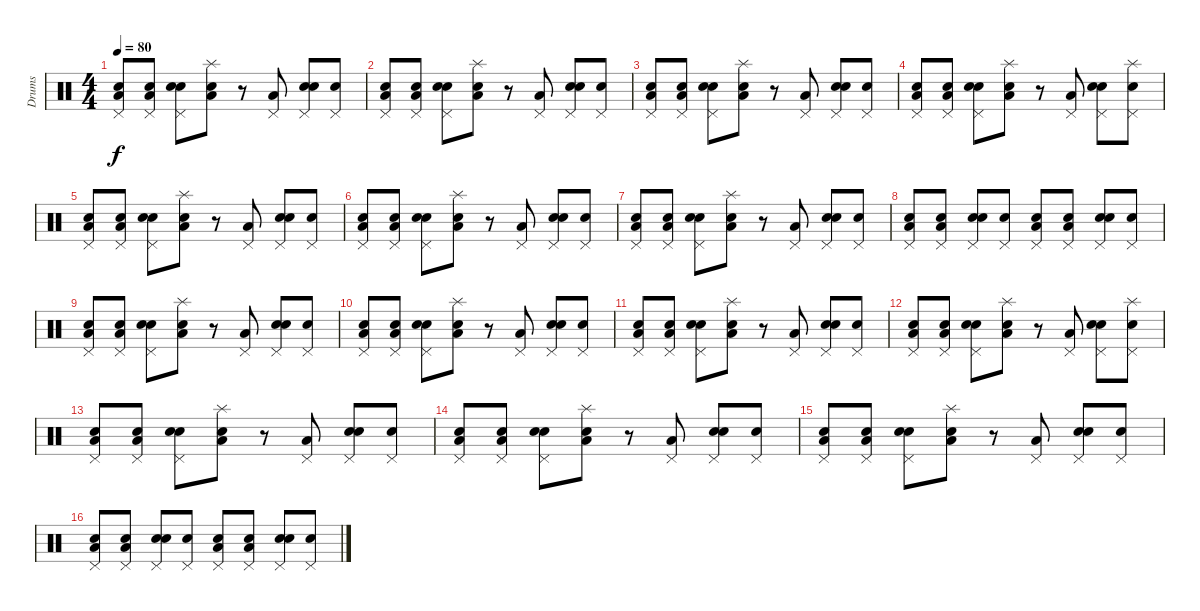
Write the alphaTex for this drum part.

\track ("Drums" "Drums") {instrument percussion}
\staff {score}
\articulation defaults
\ts (4 4)
\tempo 80
\clef neutral
\ks c
("Snare (hit)" "Low Floor Tom (hit)" "Pedal Hi-Hat (hit)").8{dy f} ("Snare (hit)" "Low Floor Tom (hit)" "Pedal Hi-Hat (hit)").8 ("Snare (hit)" "Electric Snare (hit)" "Pedal Hi-Hat (hit)").8 ("Snare (hit)" "Low Floor Tom (hit)" "Splash (hit)").8 r.8 ("Low Floor Tom (hit)" "Pedal Hi-Hat (hit)").8 ("Snare (hit)" "Electric Snare (hit)" "Pedal Hi-Hat (hit)").8 ("Snare (hit)" "Pedal Hi-Hat (hit)").8 |
("Snare (hit)" "Low Floor Tom (hit)" "Pedal Hi-Hat (hit)").8 ("Snare (hit)" "Low Floor Tom (hit)" "Pedal Hi-Hat (hit)").8 ("Snare (hit)" "Electric Snare (hit)" "Pedal Hi-Hat (hit)").8 ("Snare (hit)" "Low Floor Tom (hit)" "Splash (hit)").8 r.8 ("Low Floor Tom (hit)" "Pedal Hi-Hat (hit)").8 ("Snare (hit)" "Electric Snare (hit)" "Pedal Hi-Hat (hit)").8 ("Snare (hit)" "Pedal Hi-Hat (hit)").8 |
("Snare (hit)" "Low Floor Tom (hit)" "Pedal Hi-Hat (hit)").8 ("Snare (hit)" "Low Floor Tom (hit)" "Pedal Hi-Hat (hit)").8 ("Snare (hit)" "Electric Snare (hit)" "Pedal Hi-Hat (hit)").8 ("Snare (hit)" "Low Floor Tom (hit)" "Splash (hit)").8 r.8 ("Low Floor Tom (hit)" "Pedal Hi-Hat (hit)").8 ("Snare (hit)" "Electric Snare (hit)" "Pedal Hi-Hat (hit)").8 ("Snare (hit)" "Pedal Hi-Hat (hit)").8 |
("Snare (hit)" "Low Floor Tom (hit)" "Pedal Hi-Hat (hit)").8 ("Snare (hit)" "Low Floor Tom (hit)" "Pedal Hi-Hat (hit)").8 ("Snare (hit)" "Electric Snare (hit)" "Pedal Hi-Hat (hit)").8 ("Snare (hit)" "Low Floor Tom (hit)" "Splash (hit)").8 r.8 ("Low Floor Tom (hit)" "Pedal Hi-Hat (hit)").8 ("Snare (hit)" "Electric Snare (hit)" "Pedal Hi-Hat (hit)").8 ("Snare (hit)" "Pedal Hi-Hat (hit)" "Splash (hit)").8 |
("Snare (hit)" "Low Floor Tom (hit)" "Pedal Hi-Hat (hit)").8 ("Snare (hit)" "Low Floor Tom (hit)" "Pedal Hi-Hat (hit)").8 ("Snare (hit)" "Electric Snare (hit)" "Pedal Hi-Hat (hit)").8 ("Snare (hit)" "Low Floor Tom (hit)" "Splash (hit)").8 r.8 ("Low Floor Tom (hit)" "Pedal Hi-Hat (hit)").8 ("Snare (hit)" "Electric Snare (hit)" "Pedal Hi-Hat (hit)").8 ("Snare (hit)" "Pedal Hi-Hat (hit)").8 |
("Snare (hit)" "Low Floor Tom (hit)" "Pedal Hi-Hat (hit)").8 ("Snare (hit)" "Low Floor Tom (hit)" "Pedal Hi-Hat (hit)").8 ("Snare (hit)" "Electric Snare (hit)" "Pedal Hi-Hat (hit)").8 ("Snare (hit)" "Low Floor Tom (hit)" "Splash (hit)").8 r.8 ("Low Floor Tom (hit)" "Pedal Hi-Hat (hit)").8 ("Snare (hit)" "Electric Snare (hit)" "Pedal Hi-Hat (hit)").8 ("Snare (hit)" "Pedal Hi-Hat (hit)").8 |
("Snare (hit)" "Low Floor Tom (hit)" "Pedal Hi-Hat (hit)").8 ("Snare (hit)" "Low Floor Tom (hit)" "Pedal Hi-Hat (hit)").8 ("Snare (hit)" "Electric Snare (hit)" "Pedal Hi-Hat (hit)").8 ("Snare (hit)" "Low Floor Tom (hit)" "Splash (hit)").8 r.8 ("Low Floor Tom (hit)" "Pedal Hi-Hat (hit)").8 ("Snare (hit)" "Electric Snare (hit)" "Pedal Hi-Hat (hit)").8 ("Snare (hit)" "Pedal Hi-Hat (hit)").8 |
("Snare (hit)" "Low Floor Tom (hit)" "Pedal Hi-Hat (hit)").8 ("Snare (hit)" "Low Floor Tom (hit)" "Pedal Hi-Hat (hit)").8 ("Snare (hit)" "Electric Snare (hit)" "Pedal Hi-Hat (hit)").8 ("Snare (hit)" "Pedal Hi-Hat (hit)").8 ("Snare (hit)" "Low Floor Tom (hit)" "Pedal Hi-Hat (hit)").8 ("Snare (hit)" "Low Floor Tom (hit)" "Pedal Hi-Hat (hit)").8 ("Snare (hit)" "Electric Snare (hit)" "Pedal Hi-Hat (hit)").8 ("Snare (hit)" "Pedal Hi-Hat (hit)").8 |
("Snare (hit)" "Low Floor Tom (hit)" "Pedal Hi-Hat (hit)").8 ("Snare (hit)" "Low Floor Tom (hit)" "Pedal Hi-Hat (hit)").8 ("Snare (hit)" "Electric Snare (hit)" "Pedal Hi-Hat (hit)").8 ("Snare (hit)" "Low Floor Tom (hit)" "Splash (hit)").8 r.8 ("Low Floor Tom (hit)" "Pedal Hi-Hat (hit)").8 ("Snare (hit)" "Electric Snare (hit)" "Pedal Hi-Hat (hit)").8 ("Snare (hit)" "Pedal Hi-Hat (hit)").8 |
("Snare (hit)" "Low Floor Tom (hit)" "Pedal Hi-Hat (hit)").8 ("Snare (hit)" "Low Floor Tom (hit)" "Pedal Hi-Hat (hit)").8 ("Snare (hit)" "Electric Snare (hit)" "Pedal Hi-Hat (hit)").8 ("Snare (hit)" "Low Floor Tom (hit)" "Splash (hit)").8 r.8 ("Low Floor Tom (hit)" "Pedal Hi-Hat (hit)").8 ("Snare (hit)" "Electric Snare (hit)" "Pedal Hi-Hat (hit)").8 ("Snare (hit)" "Pedal Hi-Hat (hit)").8 |
("Snare (hit)" "Low Floor Tom (hit)" "Pedal Hi-Hat (hit)").8 ("Snare (hit)" "Low Floor Tom (hit)" "Pedal Hi-Hat (hit)").8 ("Snare (hit)" "Electric Snare (hit)" "Pedal Hi-Hat (hit)").8 ("Snare (hit)" "Low Floor Tom (hit)" "Splash (hit)").8 r.8 ("Low Floor Tom (hit)" "Pedal Hi-Hat (hit)").8 ("Snare (hit)" "Electric Snare (hit)" "Pedal Hi-Hat (hit)").8 ("Snare (hit)" "Pedal Hi-Hat (hit)").8 |
("Snare (hit)" "Low Floor Tom (hit)" "Pedal Hi-Hat (hit)").8 ("Snare (hit)" "Low Floor Tom (hit)" "Pedal Hi-Hat (hit)").8 ("Snare (hit)" "Electric Snare (hit)" "Pedal Hi-Hat (hit)").8 ("Snare (hit)" "Low Floor Tom (hit)" "Splash (hit)").8 r.8 ("Low Floor Tom (hit)" "Pedal Hi-Hat (hit)").8 ("Snare (hit)" "Electric Snare (hit)" "Pedal Hi-Hat (hit)").8 ("Snare (hit)" "Pedal Hi-Hat (hit)" "Splash (hit)").8 |
("Snare (hit)" "Low Floor Tom (hit)" "Pedal Hi-Hat (hit)").8 ("Snare (hit)" "Low Floor Tom (hit)" "Pedal Hi-Hat (hit)").8 ("Snare (hit)" "Electric Snare (hit)" "Pedal Hi-Hat (hit)").8 ("Snare (hit)" "Low Floor Tom (hit)" "Splash (hit)").8 r.8 ("Low Floor Tom (hit)" "Pedal Hi-Hat (hit)").8 ("Snare (hit)" "Electric Snare (hit)" "Pedal Hi-Hat (hit)").8 ("Snare (hit)" "Pedal Hi-Hat (hit)").8 |
("Snare (hit)" "Low Floor Tom (hit)" "Pedal Hi-Hat (hit)").8 ("Snare (hit)" "Low Floor Tom (hit)" "Pedal Hi-Hat (hit)").8 ("Snare (hit)" "Electric Snare (hit)" "Pedal Hi-Hat (hit)").8 ("Snare (hit)" "Low Floor Tom (hit)" "Splash (hit)").8 r.8 ("Low Floor Tom (hit)" "Pedal Hi-Hat (hit)").8 ("Snare (hit)" "Electric Snare (hit)" "Pedal Hi-Hat (hit)").8 ("Snare (hit)" "Pedal Hi-Hat (hit)").8 |
("Snare (hit)" "Low Floor Tom (hit)" "Pedal Hi-Hat (hit)").8 ("Snare (hit)" "Low Floor Tom (hit)" "Pedal Hi-Hat (hit)").8 ("Snare (hit)" "Electric Snare (hit)" "Pedal Hi-Hat (hit)").8 ("Snare (hit)" "Low Floor Tom (hit)" "Splash (hit)").8 r.8 ("Low Floor Tom (hit)" "Pedal Hi-Hat (hit)").8 ("Snare (hit)" "Electric Snare (hit)" "Pedal Hi-Hat (hit)").8 ("Snare (hit)" "Pedal Hi-Hat (hit)").8 |
("Snare (hit)" "Low Floor Tom (hit)" "Pedal Hi-Hat (hit)").8 ("Snare (hit)" "Low Floor Tom (hit)" "Pedal Hi-Hat (hit)").8 ("Snare (hit)" "Electric Snare (hit)" "Pedal Hi-Hat (hit)").8 ("Snare (hit)" "Pedal Hi-Hat (hit)").8 ("Snare (hit)" "Low Floor Tom (hit)" "Pedal Hi-Hat (hit)").8 ("Snare (hit)" "Low Floor Tom (hit)" "Pedal Hi-Hat (hit)").8 ("Snare (hit)" "Electric Snare (hit)" "Pedal Hi-Hat (hit)").8 ("Snare (hit)" "Pedal Hi-Hat (hit)").8
